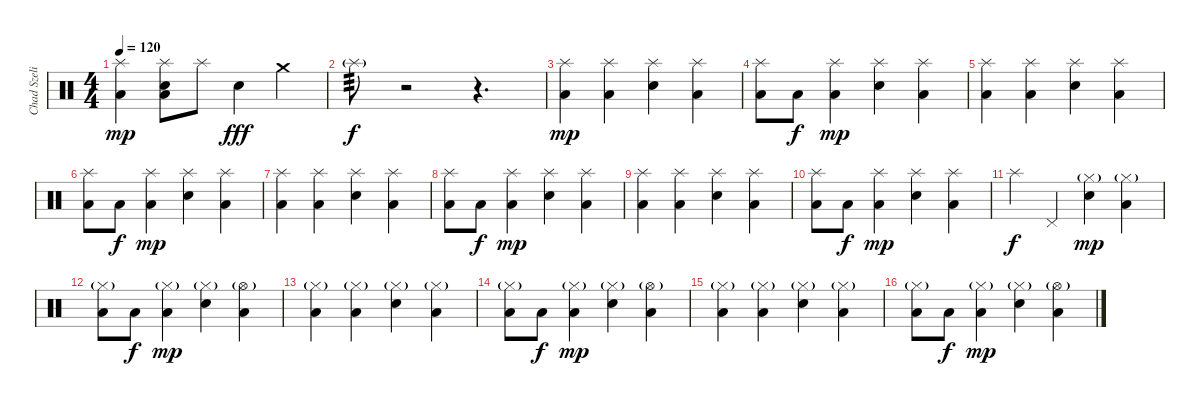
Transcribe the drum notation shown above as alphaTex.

\track ("Chad Szeliga (batteria)" "Chad Szeli") {instrument percussion}
\staff {score}
\articulation defaults
\ts (4 4)
\tempo 120
\clef neutral
\ks c
("Low Floor Tom (hit)" "Splash (hit)").4{dy mp} ("Snare (hit) 2" "Low Floor Tom (hit)" "Splash (hit)").8 "Splash (hit)".8 "Snare (hit) 2".4{dy fff} "Crash medium (hit)".4 |
"Splash (hit)"{g}.8{tp 3 dy f} r.2 r.4{d} |
("Low Floor Tom (hit)" "Splash (hit)").4{dy mp} ("Low Floor Tom (hit)" "Splash (hit)").4 ("Snare (hit) 2" "Splash (hit)").4 ("Low Floor Tom (hit)" "Splash (hit)").4 |
("Low Floor Tom (hit)" "Splash (hit)").8 "Low Floor Tom (hit)".8{dy f} ("Low Floor Tom (hit)" "Splash (hit)").4{dy mp} ("Snare (hit) 2" "Splash (hit)").4 ("Low Floor Tom (hit)" "Splash (hit)").4 |
("Low Floor Tom (hit)" "Splash (hit)").4 ("Low Floor Tom (hit)" "Splash (hit)").4 ("Snare (hit) 2" "Splash (hit)").4 ("Low Floor Tom (hit)" "Splash (hit)").4 |
("Low Floor Tom (hit)" "Splash (hit)").8 "Low Floor Tom (hit)".8{dy f} ("Low Floor Tom (hit)" "Splash (hit)").4{dy mp} ("Snare (hit) 2" "Splash (hit)").4 ("Low Floor Tom (hit)" "Splash (hit)").4 |
("Low Floor Tom (hit)" "Splash (hit)").4 ("Low Floor Tom (hit)" "Splash (hit)").4 ("Snare (hit) 2" "Splash (hit)").4 ("Low Floor Tom (hit)" "Splash (hit)").4 |
("Low Floor Tom (hit)" "Splash (hit)").8 "Low Floor Tom (hit)".8{dy f} ("Low Floor Tom (hit)" "Splash (hit)").4{dy mp} ("Snare (hit) 2" "Splash (hit)").4 ("Low Floor Tom (hit)" "Splash (hit)").4 |
("Low Floor Tom (hit)" "Splash (hit)").4 ("Low Floor Tom (hit)" "Splash (hit)").4 ("Snare (hit) 2" "Splash (hit)").4 ("Low Floor Tom (hit)" "Splash (hit)").4 |
("Low Floor Tom (hit)" "Splash (hit)").8 "Low Floor Tom (hit)".8{dy f} ("Low Floor Tom (hit)" "Splash (hit)").4{dy mp} ("Snare (hit) 2" "Splash (hit)").4 ("Low Floor Tom (hit)" "Splash (hit)").4 |
"Splash (hit)".4{dy f} "Pedal Hi-Hat (hit)".4 ("Snare (hit) 2" "Hi-Hat (closed)"{g}).4{dy mp} ("Low Floor Tom (hit)" "Hi-Hat (closed)"{g}).4 |
("Low Floor Tom (hit)" "Hi-Hat (closed)"{g}).8 "Low Floor Tom (hit)".8{dy f} ("Low Floor Tom (hit)" "Hi-Hat (closed)"{g}).4{dy mp} ("Snare (hit) 2" "Hi-Hat (closed)"{g}).4 ("Low Floor Tom (hit)" "Hi-Hat (open)"{g}).4 |
("Low Floor Tom (hit)" "Hi-Hat (closed)"{g}).4 ("Low Floor Tom (hit)" "Hi-Hat (closed)"{g}).4 ("Snare (hit) 2" "Hi-Hat (closed)"{g}).4 ("Low Floor Tom (hit)" "Hi-Hat (closed)"{g}).4 |
("Low Floor Tom (hit)" "Hi-Hat (closed)"{g}).8 "Low Floor Tom (hit)".8{dy f} ("Low Floor Tom (hit)" "Hi-Hat (closed)"{g}).4{dy mp} ("Snare (hit) 2" "Hi-Hat (closed)"{g}).4 ("Low Floor Tom (hit)" "Hi-Hat (open)"{g}).4 |
("Low Floor Tom (hit)" "Hi-Hat (closed)"{g}).4 ("Low Floor Tom (hit)" "Hi-Hat (closed)"{g}).4 ("Snare (hit) 2" "Hi-Hat (closed)"{g}).4 ("Low Floor Tom (hit)" "Hi-Hat (closed)"{g}).4 |
("Low Floor Tom (hit)" "Hi-Hat (closed)"{g}).8 "Low Floor Tom (hit)".8{dy f} ("Low Floor Tom (hit)" "Hi-Hat (closed)"{g}).4{dy mp} ("Snare (hit) 2" "Hi-Hat (closed)"{g}).4 ("Low Floor Tom (hit)" "Hi-Hat (open)"{g}).4
